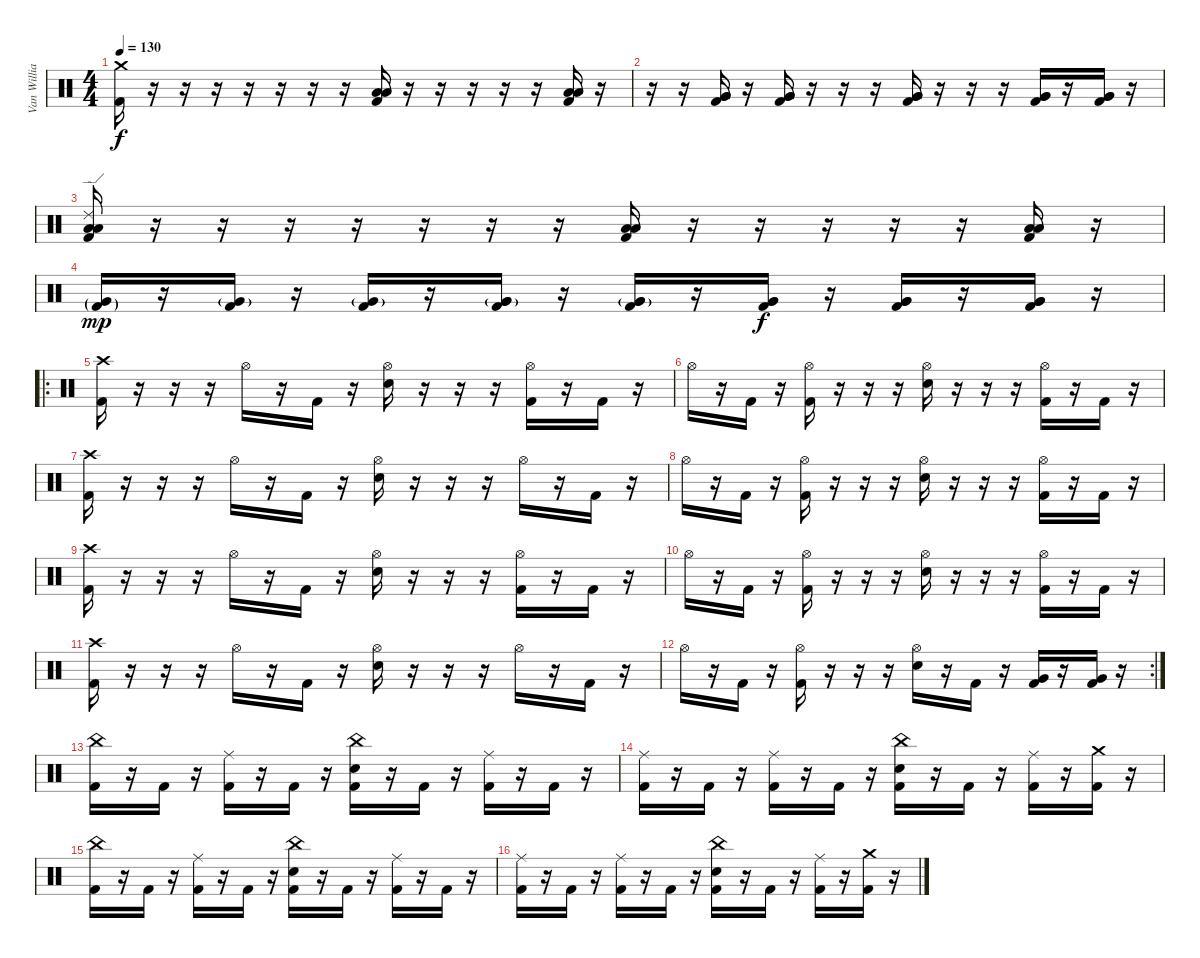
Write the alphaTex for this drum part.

\track ("Van Williams" "Van Willia") {instrument percussion}
\staff {score}
\articulation defaults
\ts (4 4)
\tempo 130
\clef neutral
\ks c
("Crash medium (hit)" "Kick (hit) 2").16{dy f} r.16 r.16 r.16 r.16 r.16 r.16 r.16 ("Kick (hit) 2" "Low Tom (hit)" "Low Tom (hit)").16 r.16 r.16 r.16 r.16 r.16 ("Kick (hit) 2" "Low Tom (hit)" "Low Tom (hit)").16 r.16 |
r.16 r.16 ("Kick (hit) 2" "Very Low Tom (hit)" "Very Low Tom (hit)").16 r.16 ("Kick (hit) 2" "Very Low Tom (hit)" "Very Low Tom (hit)").16 r.16 r.16 r.16 ("Kick (hit) 2" "Very Low Tom (hit)" "Very Low Tom (hit)").16 r.16 r.16 r.16 ("Kick (hit) 2" "Very Low Tom (hit)" "Very Low Tom (hit)").16 r.16 ("Kick (hit) 2" "Very Low Tom (hit)" "Very Low Tom (hit)").16 r.16 |
("Ride (edge) 2" "Kick (hit) 2" "Low Tom (hit)" "Low Tom (hit)").16 r.16 r.16 r.16 r.16 r.16 r.16 r.16 ("Kick (hit) 2" "Low Tom (hit)" "Low Tom (hit)").16 r.16 r.16 r.16 r.16 r.16 ("Kick (hit) 2" "Low Tom (hit)" "Low Tom (hit)").16 r.16 |
("Kick (hit) 2"{g} "Very Low Tom (hit)"{g}).16{dy mp} r.16 ("Kick (hit) 2" "Very Low Tom (hit)"{g}).16 r.16 ("Kick (hit) 2" "Very Low Tom (hit)"{g}).16 r.16 ("Kick (hit) 2" "Very Low Tom (hit)" "Very Low Tom (hit)"{g}).16 r.16 ("Kick (hit) 2" "Very Low Tom (hit)" "Very Low Tom (hit)"{g}).16 r.16 ("Kick (hit) 2" "Very Low Tom (hit)" "Very Low Tom (hit)").16{dy f} r.16 ("Kick (hit) 2" "Very Low Tom (hit)" "Very Low Tom (hit)").16 r.16 ("Kick (hit) 2" "Very Low Tom (hit)" "Very Low Tom (hit)").16 r.16 |
\ro
("Crash high (hit)" "Kick (hit) 2").16 r.16 r.16 r.16 "Hi-Hat (open)".16 r.16 "Kick (hit) 2".16 r.16 ("Hi-Hat (open)" "Electric Snare (hit)").16 r.16 r.16 r.16 ("Hi-Hat (open)" "Kick (hit) 2").16 r.16 "Kick (hit) 2".16 r.16 |
"Hi-Hat (open)".16 r.16 "Kick (hit) 2".16 r.16 ("Hi-Hat (open)" "Kick (hit) 2").16 r.16 r.16 r.16 ("Hi-Hat (open)" "Electric Snare (hit)").16 r.16 r.16 r.16 ("Hi-Hat (open)" "Kick (hit) 2").16 r.16 "Kick (hit) 2".16 r.16 |
("Crash high (hit)" "Kick (hit) 2").16 r.16 r.16 r.16 "Hi-Hat (open)".16 r.16 "Kick (hit) 2".16 r.16 ("Hi-Hat (open)" "Electric Snare (hit)").16 r.16 r.16 r.16 "Hi-Hat (open)".16 r.16 "Kick (hit) 2".16 r.16 |
"Hi-Hat (open)".16 r.16 "Kick (hit) 2".16 r.16 ("Hi-Hat (open)" "Kick (hit) 2").16 r.16 r.16 r.16 ("Hi-Hat (open)" "Electric Snare (hit)").16 r.16 r.16 r.16 ("Hi-Hat (open)" "Kick (hit) 2").16 r.16 "Kick (hit) 2".16 r.16 |
("Crash high (hit)" "Kick (hit) 2").16 r.16 r.16 r.16 "Hi-Hat (open)".16 r.16 "Kick (hit) 2".16 r.16 ("Hi-Hat (open)" "Electric Snare (hit)").16 r.16 r.16 r.16 ("Hi-Hat (open)" "Kick (hit) 2").16 r.16 "Kick (hit) 2".16 r.16 |
"Hi-Hat (open)".16 r.16 "Kick (hit) 2".16 r.16 ("Hi-Hat (open)" "Kick (hit) 2").16 r.16 r.16 r.16 ("Hi-Hat (open)" "Electric Snare (hit)").16 r.16 r.16 r.16 ("Hi-Hat (open)" "Kick (hit) 2").16 r.16 "Kick (hit) 2".16 r.16 |
("Crash high (hit)" "Kick (hit) 2").16 r.16 r.16 r.16 "Hi-Hat (open)".16 r.16 "Kick (hit) 2".16 r.16 ("Hi-Hat (open)" "Electric Snare (hit)").16 r.16 r.16 r.16 "Hi-Hat (open)".16 r.16 "Kick (hit) 2".16 r.16 |
\rc 2 "Hi-Hat (open)".16
r.16 "Kick (hit) 2".16 r.16 ("Hi-Hat (open)" "Kick (hit) 2").16 r.16 r.16 r.16 ("Hi-Hat (open)" "Electric Snare (hit)").16 r.16 "Kick (hit) 2".16 r.16 ("Kick (hit) 2" "Very Low Tom (hit)").16 r.16 ("Kick (hit) 2" "Very Low Tom (hit)").16 r.16 |
("China (hit)" "Kick (hit) 2").16 r.16 "Kick (hit) 2".16 r.16 ("Ride (middle)" "Kick (hit) 2").16 r.16 "Kick (hit) 2".16 r.16 ("China (hit)" "Kick (hit) 2" "Electric Snare (hit)").16 r.16 "Kick (hit) 2".16 r.16 ("Ride (middle)" "Kick (hit) 2").16 r.16 "Kick (hit) 2".16 r.16 |
("Ride (middle)" "Kick (hit) 2").16 r.16 "Kick (hit) 2".16 r.16 ("Ride (middle)" "Kick (hit) 2").16 r.16 "Kick (hit) 2".16 r.16 ("China (hit)" "Kick (hit) 2" "Electric Snare (hit)").16 r.16 "Kick (hit) 2".16 r.16 ("Ride (middle)" "Kick (hit) 2").16 r.16 ("Crash medium (hit)" "Kick (hit) 2").16 r.16 |
("China (hit)" "Kick (hit) 2").16 r.16 "Kick (hit) 2".16 r.16 ("Ride (middle)" "Kick (hit) 2").16 r.16 "Kick (hit) 2".16 r.16 ("China (hit)" "Kick (hit) 2" "Electric Snare (hit)").16 r.16 "Kick (hit) 2".16 r.16 ("Ride (middle)" "Kick (hit) 2").16 r.16 "Kick (hit) 2".16 r.16 |
("Ride (middle)" "Kick (hit) 2").16 r.16 "Kick (hit) 2".16 r.16 ("Ride (middle)" "Kick (hit) 2").16 r.16 "Kick (hit) 2".16 r.16 ("China (hit)" "Kick (hit) 2" "Electric Snare (hit)").16 r.16 "Kick (hit) 2".16 r.16 ("Ride (middle)" "Kick (hit) 2").16 r.16 ("Crash medium (hit)" "Kick (hit) 2").16 r.16
